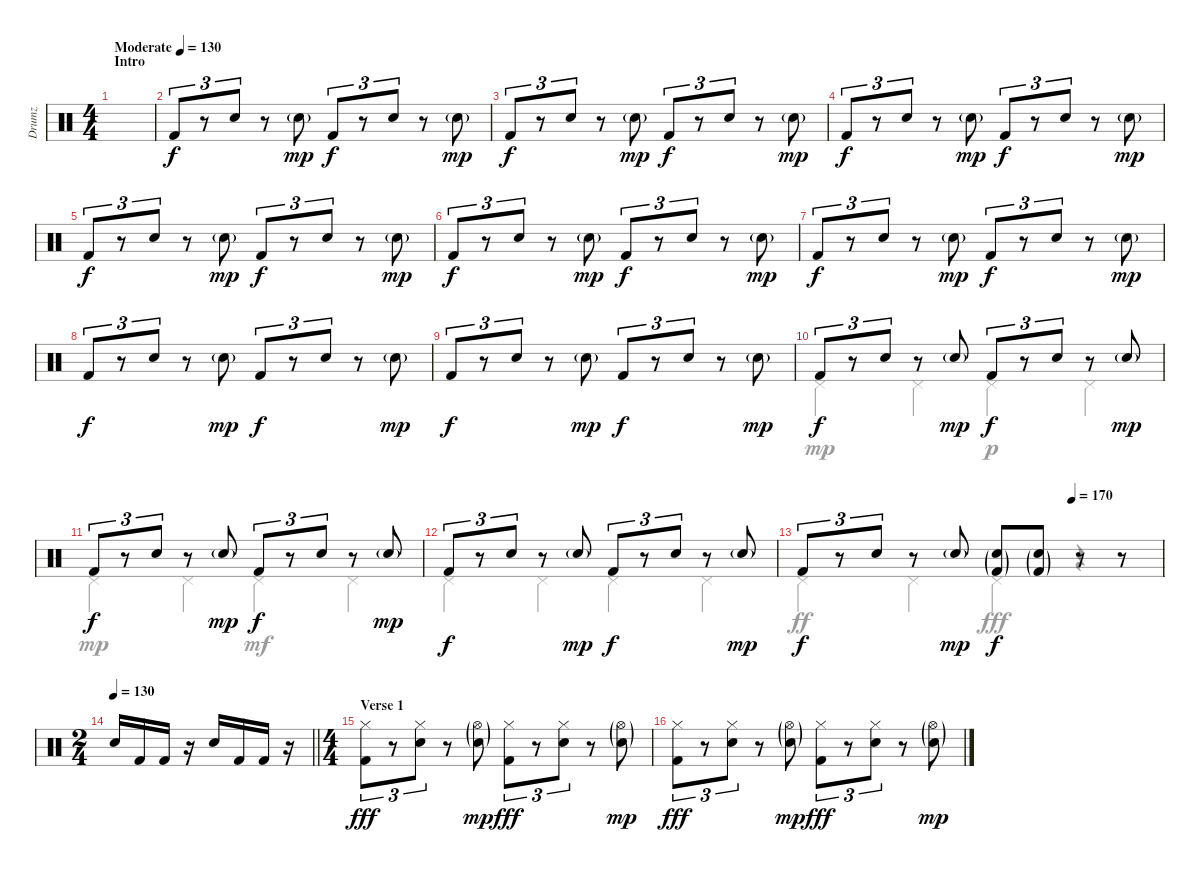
\track ("Drumz" "Drumz") {instrument percussion}
\staff {score}
\articulation defaults
\voice
\ts (4 4)
\section ("" "Intro")
\tempo (130 "Moderate")
\clef neutral
\ks c
|
"Kick (hit) 2".8{tu (3 2)} r.8{tu (3 2)} "Snare (hit) 2".8{tu (3 2)} r.8 "Snare (hit) 2"{g}.8{dy mp} "Kick (hit) 2".8{tu (3 2) dy f} r.8{tu (3 2)} "Snare (hit) 2".8{tu (3 2)} r.8 "Snare (hit) 2"{g}.8{dy mp} |
"Kick (hit) 2".8{tu (3 2) dy f} r.8{tu (3 2)} "Snare (hit) 2".8{tu (3 2)} r.8 "Snare (hit) 2"{g}.8{dy mp} "Kick (hit) 2".8{tu (3 2) dy f} r.8{tu (3 2)} "Snare (hit) 2".8{tu (3 2)} r.8 "Snare (hit) 2"{g}.8{dy mp} |
"Kick (hit) 2".8{tu (3 2) dy f} r.8{tu (3 2)} "Snare (hit) 2".8{tu (3 2)} r.8 "Snare (hit) 2"{g}.8{dy mp} "Kick (hit) 2".8{tu (3 2) dy f} r.8{tu (3 2)} "Snare (hit) 2".8{tu (3 2)} r.8 "Snare (hit) 2"{g}.8{dy mp} |
"Kick (hit) 2".8{tu (3 2) dy f} r.8{tu (3 2)} "Snare (hit) 2".8{tu (3 2)} r.8 "Snare (hit) 2"{g}.8{dy mp} "Kick (hit) 2".8{tu (3 2) dy f} r.8{tu (3 2)} "Snare (hit) 2".8{tu (3 2)} r.8 "Snare (hit) 2"{g}.8{dy mp} |
"Kick (hit) 2".8{tu (3 2) dy f} r.8{tu (3 2)} "Snare (hit) 2".8{tu (3 2)} r.8 "Snare (hit) 2"{g}.8{dy mp} "Kick (hit) 2".8{tu (3 2) dy f} r.8{tu (3 2)} "Snare (hit) 2".8{tu (3 2)} r.8 "Snare (hit) 2"{g}.8{dy mp} |
"Kick (hit) 2".8{tu (3 2) dy f} r.8{tu (3 2)} "Snare (hit) 2".8{tu (3 2)} r.8 "Snare (hit) 2"{g}.8{dy mp} "Kick (hit) 2".8{tu (3 2) dy f} r.8{tu (3 2)} "Snare (hit) 2".8{tu (3 2)} r.8 "Snare (hit) 2"{g}.8{dy mp} |
"Kick (hit) 2".8{tu (3 2) dy f} r.8{tu (3 2)} "Snare (hit) 2".8{tu (3 2)} r.8 "Snare (hit) 2"{g}.8{dy mp} "Kick (hit) 2".8{tu (3 2) dy f} r.8{tu (3 2)} "Snare (hit) 2".8{tu (3 2)} r.8 "Snare (hit) 2"{g}.8{dy mp} |
"Kick (hit) 2".8{tu (3 2) dy f} r.8{tu (3 2)} "Snare (hit) 2".8{tu (3 2)} r.8 "Snare (hit) 2"{g}.8{dy mp} "Kick (hit) 2".8{tu (3 2) dy f} r.8{tu (3 2)} "Snare (hit) 2".8{tu (3 2)} r.8 "Snare (hit) 2"{g}.8{dy mp} |
"Kick (hit) 2".8{tu (3 2) dy f} r.8{tu (3 2)} "Snare (hit) 2".8{tu (3 2)} r.8 "Snare (hit) 2"{g}.8{dy mp} "Kick (hit) 2".8{tu (3 2) dy f} r.8{tu (3 2)} "Snare (hit) 2".8{tu (3 2)} r.8 "Snare (hit) 2"{g}.8{dy mp} |
"Kick (hit) 2".8{tu (3 2) dy f} r.8{tu (3 2)} "Snare (hit) 2".8{tu (3 2)} r.8 "Snare (hit) 2"{g}.8{dy mp} "Kick (hit) 2".8{tu (3 2) dy f} r.8{tu (3 2)} "Snare (hit) 2".8{tu (3 2)} r.8 "Snare (hit) 2"{g}.8{dy mp} |
"Kick (hit) 2".8{tu (3 2) dy f} r.8{tu (3 2)} "Snare (hit) 2".8{tu (3 2)} r.8 "Snare (hit) 2"{g}.8{dy mp} "Kick (hit) 2".8{tu (3 2) dy f} r.8{tu (3 2)} "Snare (hit) 2".8{tu (3 2)} r.8 "Snare (hit) 2"{g}.8{dy mp} |
\tempo (170 0.75)
"Kick (hit) 2".8{tu (3 2) dy f} r.8{tu (3 2)} "Snare (hit) 2".8{tu (3 2)} r.8 "Snare (hit) 2"{g}.8{dy mp} ("Snare (hit) 2"{g} "Kick (hit) 2"{g}).8{dy f} ("Snare (hit) 2"{g} "Kick (hit) 2"{g}).8 r.8 r.8 |
\ts (2 4)
\tempo 130
\barLineRight lightlight "Electric Snare (hit)".16 "Kick (hit) 2".16 "Kick (hit) 2".16
r.16 "Electric Snare (hit)".16 "Kick (hit) 2".16 "Kick (hit) 2".16 r.16 |
\ts (4 4)
\section ("" "Verse 1")
("Hi-Hat (closed)" "Kick (hit) 2").8{tu (3 2) dy fff} r.8{tu (3 2)} ("Hi-Hat (closed)" "Snare (hit) 2").8{tu (3 2)} r.8 ("Hi-Hat (open)"{g} "Snare (hit) 2"{g}).8{dy mp} ("Hi-Hat (closed)" "Kick (hit) 2").8{tu (3 2) dy fff} r.8{tu (3 2)} ("Hi-Hat (closed)" "Snare (hit) 2").8{tu (3 2)} r.8 ("Hi-Hat (open)"{g} "Snare (hit) 2"{g}).8{dy mp} |
("Hi-Hat (closed)" "Kick (hit) 2").8{tu (3 2) dy fff} r.8{tu (3 2)} ("Hi-Hat (closed)" "Snare (hit) 2").8{tu (3 2)} r.8 ("Hi-Hat (open)"{g} "Snare (hit) 2"{g}).8{dy mp} ("Hi-Hat (closed)" "Kick (hit) 2").8{tu (3 2) dy fff} r.8{tu (3 2)} ("Hi-Hat (closed)" "Snare (hit) 2").8{tu (3 2)} r.8 ("Hi-Hat (open)"{g} "Snare (hit) 2"{g}).8{dy mp}
\voice
\clef neutral
\ottava regular
\simile none
\ks c
|
|
|
|
|
|
|
|
|
"Pedal Hi-Hat (hit)".4 "Pedal Hi-Hat (hit)".4 "Pedal Hi-Hat (hit)".4{dy p} "Pedal Hi-Hat (hit)".4 |
"Pedal Hi-Hat (hit)".4{dy mp} "Pedal Hi-Hat (hit)".4 "Pedal Hi-Hat (hit)".4{dy mf} "Pedal Hi-Hat (hit)".4 |
"Pedal Hi-Hat (hit)".4 "Pedal Hi-Hat (hit)".4 "Pedal Hi-Hat (hit)".4{dy f} "Pedal Hi-Hat (hit)".4 |
"Pedal Hi-Hat (hit)".4{dy ff} "Pedal Hi-Hat (hit)".4 "Pedal Hi-Hat (hit)".4{dy fff} r.4 |
\barLineRight lightlight
|
|
